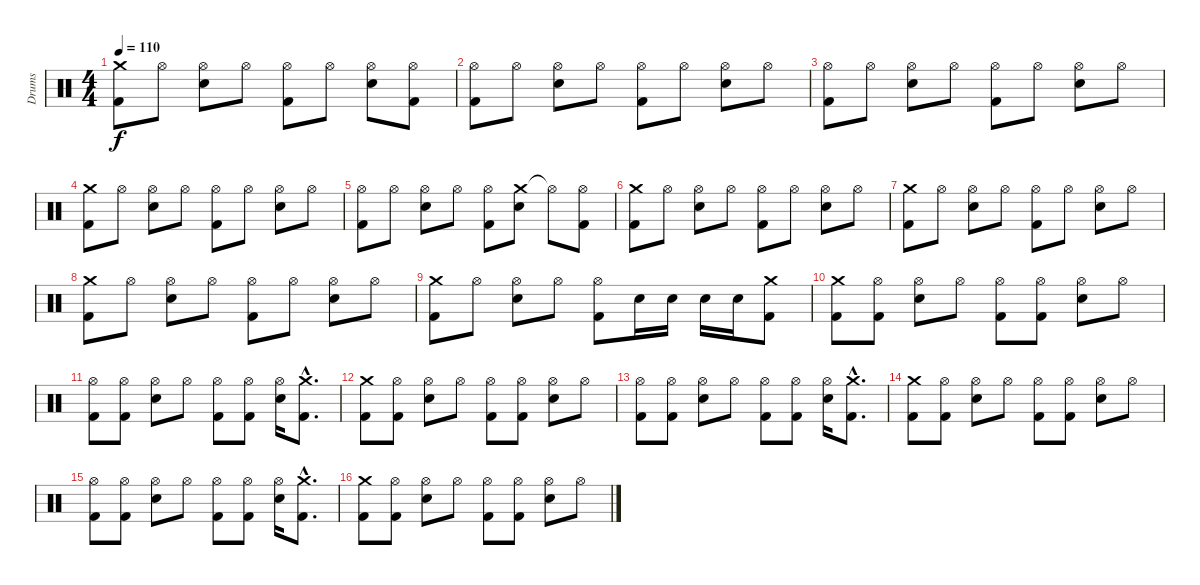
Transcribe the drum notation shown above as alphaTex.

\track ("Drums" "Drums") {instrument percussion}
\staff {score}
\articulation defaults
\ts (4 4)
\tempo 110
\clef neutral
\ks c
("Crash medium (hit)" "Kick (hit) 2").8{dy f} "Hi-Hat (open)".8 ("Hi-Hat (open)" "Snare (hit) 2").8 "Hi-Hat (open)".8 ("Hi-Hat (open)" "Kick (hit) 2").8 "Hi-Hat (open)".8 ("Hi-Hat (open)" "Snare (hit) 2").8 ("Hi-Hat (open)" "Kick (hit) 2").8 |
("Hi-Hat (open)" "Kick (hit) 2").8 "Hi-Hat (open)".8 ("Hi-Hat (open)" "Snare (hit) 2").8 "Hi-Hat (open)".8 ("Hi-Hat (open)" "Kick (hit) 2").8 "Hi-Hat (open)".8 ("Hi-Hat (open)" "Snare (hit) 2").8 "Hi-Hat (open)".8 |
("Hi-Hat (open)" "Kick (hit) 2").8 "Hi-Hat (open)".8 ("Hi-Hat (open)" "Snare (hit) 2").8 "Hi-Hat (open)".8 ("Hi-Hat (open)" "Kick (hit) 2").8 "Hi-Hat (open)".8 ("Hi-Hat (open)" "Snare (hit) 2").8 "Hi-Hat (open)".8 |
("Crash medium (hit)" "Kick (hit) 2").8 "Hi-Hat (open)".8 ("Hi-Hat (open)" "Snare (hit) 2").8 "Hi-Hat (open)".8 ("Hi-Hat (open)" "Kick (hit) 2").8 "Hi-Hat (open)".8 ("Hi-Hat (open)" "Snare (hit) 2").8 "Hi-Hat (open)".8 |
("Hi-Hat (open)" "Kick (hit) 2").8 "Hi-Hat (open)".8 ("Hi-Hat (open)" "Snare (hit) 2").8 "Hi-Hat (open)".8 ("Hi-Hat (open)" "Kick (hit) 2").8 ("Crash medium (hit)" "Snare (hit) 2").8 "Hi-Hat (open)"{t}.8 ("Hi-Hat (open)" "Kick (hit) 2").8 |
("Crash medium (hit)" "Kick (hit) 2").8 "Hi-Hat (open)".8 ("Hi-Hat (open)" "Snare (hit) 2").8 "Hi-Hat (open)".8 ("Hi-Hat (open)" "Kick (hit) 2").8 "Hi-Hat (open)".8 ("Hi-Hat (open)" "Snare (hit) 2").8 "Hi-Hat (open)".8 |
("Crash medium (hit)" "Kick (hit) 2").8 "Hi-Hat (open)".8 ("Hi-Hat (open)" "Snare (hit) 2").8 "Hi-Hat (open)".8 ("Hi-Hat (open)" "Kick (hit) 2").8 "Hi-Hat (open)".8 ("Hi-Hat (open)" "Snare (hit) 2").8 "Hi-Hat (open)".8 |
("Crash medium (hit)" "Kick (hit) 2").8 "Hi-Hat (open)".8 ("Hi-Hat (open)" "Snare (hit) 2").8 "Hi-Hat (open)".8 ("Hi-Hat (open)" "Kick (hit) 2").8 "Hi-Hat (open)".8 ("Hi-Hat (open)" "Snare (hit) 2").8 "Hi-Hat (open)".8 |
("Crash medium (hit)" "Kick (hit) 2").8 "Hi-Hat (open)".8 ("Hi-Hat (open)" "Snare (hit) 2").8 "Hi-Hat (open)".8 ("Hi-Hat (open)" "Kick (hit) 2").8 "Snare (hit) 2".16 "Snare (hit) 2".16 "Snare (hit) 2".16 "Snare (hit) 2".16 ("Crash medium (hit)" "Kick (hit) 2").8 |
("Crash medium (hit)" "Kick (hit) 2").8 ("Hi-Hat (open)" "Kick (hit) 2").8 ("Hi-Hat (open)" "Snare (hit) 2").8 "Hi-Hat (open)".8 ("Hi-Hat (open)" "Kick (hit) 2").8 ("Hi-Hat (open)" "Kick (hit) 2").8 ("Hi-Hat (open)" "Snare (hit) 2").8 "Hi-Hat (open)".8 |
("Hi-Hat (open)" "Kick (hit) 2").8 ("Hi-Hat (open)" "Kick (hit) 2").8 ("Hi-Hat (open)" "Snare (hit) 2").8 "Hi-Hat (open)".8 ("Hi-Hat (open)" "Kick (hit) 2").8 ("Hi-Hat (open)" "Kick (hit) 2").8 ("Hi-Hat (open)" "Snare (hit) 2").16 ("Crash medium (hit)"{hac} "Kick (hit) 2"{hac}).8{d} |
("Crash medium (hit)" "Kick (hit) 2").8 ("Hi-Hat (open)" "Kick (hit) 2").8 ("Hi-Hat (open)" "Snare (hit) 2").8 "Hi-Hat (open)".8 ("Hi-Hat (open)" "Kick (hit) 2").8 ("Hi-Hat (open)" "Kick (hit) 2").8 ("Hi-Hat (open)" "Snare (hit) 2").8 "Hi-Hat (open)".8 |
("Hi-Hat (open)" "Kick (hit) 2").8 ("Hi-Hat (open)" "Kick (hit) 2").8 ("Hi-Hat (open)" "Snare (hit) 2").8 "Hi-Hat (open)".8 ("Hi-Hat (open)" "Kick (hit) 2").8 ("Hi-Hat (open)" "Kick (hit) 2").8 ("Hi-Hat (open)" "Snare (hit) 2").16 ("Crash medium (hit)"{hac} "Kick (hit) 2"{hac}).8{d} |
("Crash medium (hit)" "Kick (hit) 2").8 ("Hi-Hat (open)" "Kick (hit) 2").8 ("Hi-Hat (open)" "Snare (hit) 2").8 "Hi-Hat (open)".8 ("Hi-Hat (open)" "Kick (hit) 2").8 ("Hi-Hat (open)" "Kick (hit) 2").8 ("Hi-Hat (open)" "Snare (hit) 2").8 "Hi-Hat (open)".8 |
("Hi-Hat (open)" "Kick (hit) 2").8 ("Hi-Hat (open)" "Kick (hit) 2").8 ("Hi-Hat (open)" "Snare (hit) 2").8 "Hi-Hat (open)".8 ("Hi-Hat (open)" "Kick (hit) 2").8 ("Hi-Hat (open)" "Kick (hit) 2").8 ("Hi-Hat (open)" "Snare (hit) 2").16 ("Crash medium (hit)"{hac} "Kick (hit) 2"{hac}).8{d} |
("Crash medium (hit)" "Kick (hit) 2").8 ("Hi-Hat (open)" "Kick (hit) 2").8 ("Hi-Hat (open)" "Snare (hit) 2").8 "Hi-Hat (open)".8 ("Hi-Hat (open)" "Kick (hit) 2").8 ("Hi-Hat (open)" "Kick (hit) 2").8 ("Hi-Hat (open)" "Snare (hit) 2").8 "Hi-Hat (open)".8
